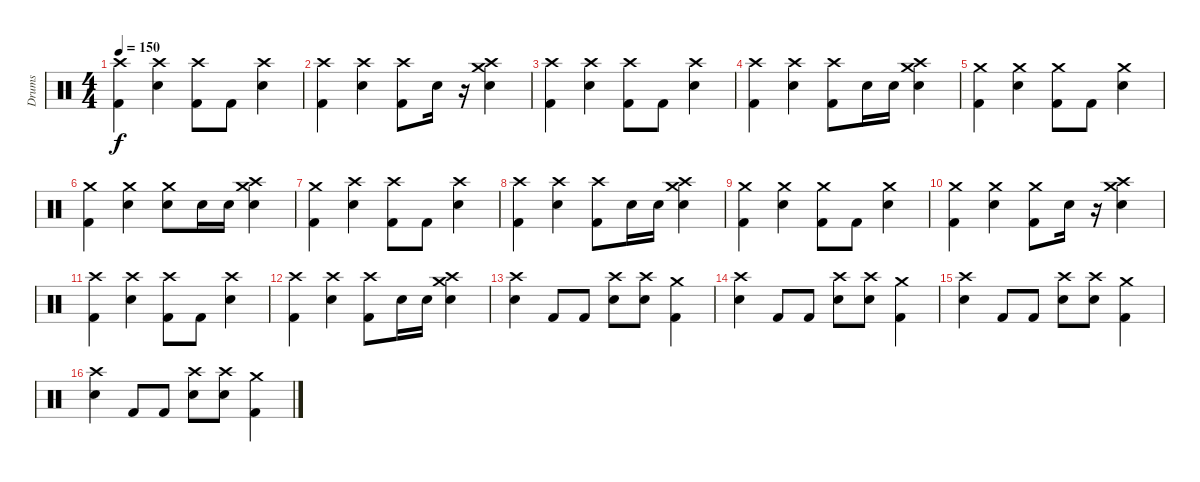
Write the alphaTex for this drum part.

\track ("Drums" "Drums") {instrument percussion}
\staff {score}
\articulation defaults
\ts (4 4)
\tempo 150
\clef neutral
\ks c
("Crash high (hit)" "Kick (hit) 2").4{dy f} ("Crash high (hit)" "Electric Snare (hit)").4 ("Crash high (hit)" "Kick (hit) 2").8 "Kick (hit) 2".8 ("Crash high (hit)" "Electric Snare (hit)").4 |
("Crash high (hit)" "Kick (hit) 2").4 ("Crash high (hit)" "Electric Snare (hit)").4 ("Crash high (hit)" "Kick (hit) 2").8 "Electric Snare (hit)".16 r.16 ("Crash medium (hit)" "Crash high (hit)" "Electric Snare (hit)").4 |
("Crash high (hit)" "Kick (hit) 2").4 ("Crash high (hit)" "Electric Snare (hit)").4 ("Crash high (hit)" "Kick (hit) 2").8 "Kick (hit) 2".8 ("Crash high (hit)" "Electric Snare (hit)").4 |
("Crash high (hit)" "Kick (hit) 2").4 ("Crash high (hit)" "Electric Snare (hit)").4 ("Crash high (hit)" "Kick (hit) 2").8 "Electric Snare (hit)".16 "Electric Snare (hit)".16 ("Crash medium (hit)" "Crash high (hit)" "Electric Snare (hit)").4 |
("Crash medium (hit)" "Kick (hit) 2").4 ("Crash medium (hit)" "Electric Snare (hit)").4 ("Crash medium (hit)" "Kick (hit) 2").8 "Kick (hit) 2".8 ("Crash medium (hit)" "Electric Snare (hit)").4 |
("Crash medium (hit)" "Kick (hit) 2").4 ("Crash medium (hit)" "Electric Snare (hit)").4 ("Crash medium (hit)" "Electric Snare (hit)").8 "Electric Snare (hit)".16 "Electric Snare (hit)".16 ("Crash high (hit)" "Crash medium (hit)" "Electric Snare (hit)").4 |
("Crash medium (hit)" "Kick (hit) 2").4 ("Crash high (hit)" "Electric Snare (hit)").4 ("Crash high (hit)" "Kick (hit) 2").8 "Kick (hit) 2".8 ("Crash high (hit)" "Electric Snare (hit)").4 |
("Crash high (hit)" "Kick (hit) 2").4 ("Crash high (hit)" "Electric Snare (hit)").4 ("Crash high (hit)" "Kick (hit) 2").8 "Electric Snare (hit)".16 "Electric Snare (hit)".16 ("Crash medium (hit)" "Crash high (hit)" "Electric Snare (hit)").4 |
("Crash medium (hit)" "Kick (hit) 2").4 ("Crash medium (hit)" "Electric Snare (hit)").4 ("Crash medium (hit)" "Kick (hit) 2").8 "Kick (hit) 2".8 ("Crash medium (hit)" "Electric Snare (hit)").4 |
("Crash medium (hit)" "Kick (hit) 2").4 ("Crash medium (hit)" "Electric Snare (hit)").4 ("Crash medium (hit)" "Kick (hit) 2").8 "Electric Snare (hit)".16 r.16 ("Crash high (hit)" "Crash medium (hit)" "Electric Snare (hit)").4 |
("Crash high (hit)" "Kick (hit) 2").4 ("Crash high (hit)" "Electric Snare (hit)").4 ("Crash high (hit)" "Kick (hit) 2").8 "Kick (hit) 2".8 ("Crash high (hit)" "Electric Snare (hit)").4 |
("Crash high (hit)" "Kick (hit) 2").4 ("Crash high (hit)" "Electric Snare (hit)").4 ("Crash high (hit)" "Kick (hit) 2").8 "Electric Snare (hit)".16 "Electric Snare (hit)".16 ("Crash high (hit)" "Crash medium (hit)" "Electric Snare (hit)").4 |
("Crash high (hit)" "Electric Snare (hit)").4 "Kick (hit) 2".8 "Kick (hit) 2".8 ("Crash high (hit)" "Electric Snare (hit)").8 ("Crash high (hit)" "Electric Snare (hit)").8 ("Crash medium (hit)" "Kick (hit) 2").4 |
("Crash high (hit)" "Electric Snare (hit)").4 "Kick (hit) 2".8 "Kick (hit) 2".8 ("Crash high (hit)" "Electric Snare (hit)").8 ("Crash high (hit)" "Electric Snare (hit)").8 ("Crash medium (hit)" "Kick (hit) 2").4 |
("Crash high (hit)" "Electric Snare (hit)").4 "Kick (hit) 2".8 "Kick (hit) 2".8 ("Crash high (hit)" "Electric Snare (hit)").8 ("Crash high (hit)" "Electric Snare (hit)").8 ("Crash medium (hit)" "Kick (hit) 2").4 |
("Crash high (hit)" "Electric Snare (hit)").4 "Kick (hit) 2".8 "Kick (hit) 2".8 ("Crash high (hit)" "Electric Snare (hit)").8 ("Crash high (hit)" "Electric Snare (hit)").8 ("Crash medium (hit)" "Kick (hit) 2").4
